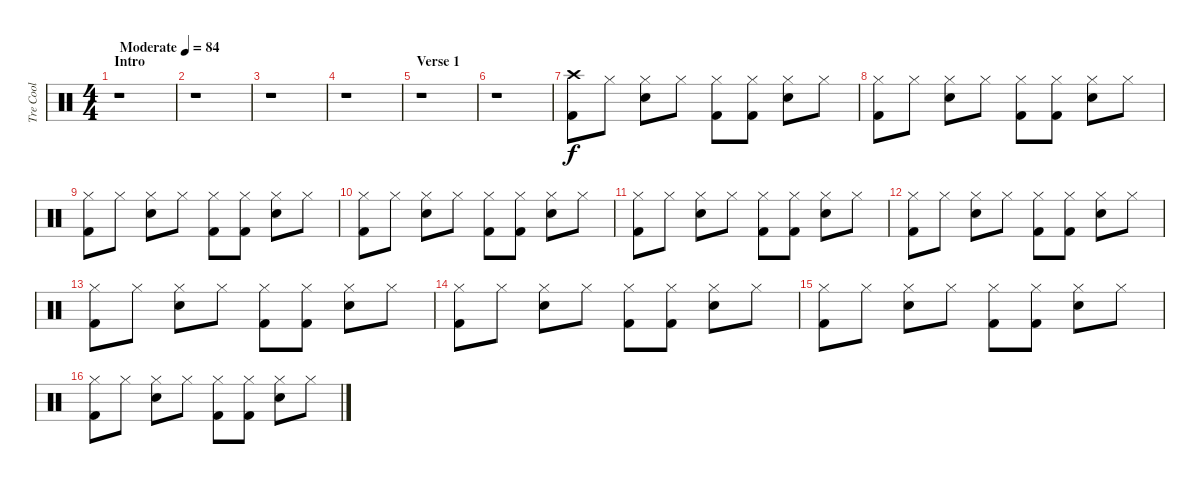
\track ("Tre Cool" "Tre Cool") {instrument percussion}
\staff {score}
\articulation defaults
\ts (4 4)
\section ("" "Intro")
\tempo (84 "Moderate")
\clef neutral
\ks c
r.1{dy f} |
r.1 |
r.1 |
r.1 |
\section ("" "Verse 1")
r.1 |
r.1 |
("Crash high (hit)" "Kick (hit) 2").8 "Hi-Hat (closed)".8 ("Hi-Hat (closed)" "Snare (hit) 2").8 "Hi-Hat (closed)".8 ("Hi-Hat (closed)" "Kick (hit) 2").8 ("Hi-Hat (closed)" "Kick (hit) 2").8 ("Hi-Hat (closed)" "Snare (hit) 2").8 "Hi-Hat (closed)".8 |
("Hi-Hat (closed)" "Kick (hit) 2").8 "Hi-Hat (closed)".8 ("Hi-Hat (closed)" "Snare (hit) 2").8 "Hi-Hat (closed)".8 ("Hi-Hat (closed)" "Kick (hit) 2").8 ("Hi-Hat (closed)" "Kick (hit) 2").8 ("Hi-Hat (closed)" "Snare (hit) 2").8 "Hi-Hat (closed)".8 |
("Hi-Hat (closed)" "Kick (hit) 2").8 "Hi-Hat (closed)".8 ("Hi-Hat (closed)" "Snare (hit) 2").8 "Hi-Hat (closed)".8 ("Hi-Hat (closed)" "Kick (hit) 2").8 ("Hi-Hat (closed)" "Kick (hit) 2").8 ("Hi-Hat (closed)" "Snare (hit) 2").8 "Hi-Hat (closed)".8 |
("Hi-Hat (closed)" "Kick (hit) 2").8 "Hi-Hat (closed)".8 ("Hi-Hat (closed)" "Snare (hit) 2").8 "Hi-Hat (closed)".8 ("Hi-Hat (closed)" "Kick (hit) 2").8 ("Hi-Hat (closed)" "Kick (hit) 2").8 ("Hi-Hat (closed)" "Snare (hit) 2").8 "Hi-Hat (closed)".8 |
("Hi-Hat (closed)" "Kick (hit) 2").8 "Hi-Hat (closed)".8 ("Hi-Hat (closed)" "Snare (hit) 2").8 "Hi-Hat (closed)".8 ("Hi-Hat (closed)" "Kick (hit) 2").8 ("Hi-Hat (closed)" "Kick (hit) 2").8 ("Hi-Hat (closed)" "Snare (hit) 2").8 "Hi-Hat (closed)".8 |
("Hi-Hat (closed)" "Kick (hit) 2").8 "Hi-Hat (closed)".8 ("Hi-Hat (closed)" "Snare (hit) 2").8 "Hi-Hat (closed)".8 ("Hi-Hat (closed)" "Kick (hit) 2").8 ("Hi-Hat (closed)" "Kick (hit) 2").8 ("Hi-Hat (closed)" "Snare (hit) 2").8 "Hi-Hat (closed)".8 |
("Hi-Hat (closed)" "Kick (hit) 2").8 "Hi-Hat (closed)".8 ("Hi-Hat (closed)" "Snare (hit) 2").8 "Hi-Hat (closed)".8 ("Hi-Hat (closed)" "Kick (hit) 2").8 ("Hi-Hat (closed)" "Kick (hit) 2").8 ("Hi-Hat (closed)" "Snare (hit) 2").8 "Hi-Hat (closed)".8 |
("Hi-Hat (closed)" "Kick (hit) 2").8 "Hi-Hat (closed)".8 ("Hi-Hat (closed)" "Snare (hit) 2").8 "Hi-Hat (closed)".8 ("Hi-Hat (closed)" "Kick (hit) 2").8 ("Hi-Hat (closed)" "Kick (hit) 2").8 ("Hi-Hat (closed)" "Snare (hit) 2").8 "Hi-Hat (closed)".8 |
("Hi-Hat (closed)" "Kick (hit) 2").8 "Hi-Hat (closed)".8 ("Hi-Hat (closed)" "Snare (hit) 2").8 "Hi-Hat (closed)".8 ("Hi-Hat (closed)" "Kick (hit) 2").8 ("Hi-Hat (closed)" "Kick (hit) 2").8 ("Hi-Hat (closed)" "Snare (hit) 2").8 "Hi-Hat (closed)".8 |
("Hi-Hat (closed)" "Kick (hit) 2").8 "Hi-Hat (closed)".8 ("Hi-Hat (closed)" "Snare (hit) 2").8 "Hi-Hat (closed)".8 ("Hi-Hat (closed)" "Kick (hit) 2").8 ("Hi-Hat (closed)" "Kick (hit) 2").8 ("Hi-Hat (closed)" "Snare (hit) 2").8 "Hi-Hat (closed)".8
